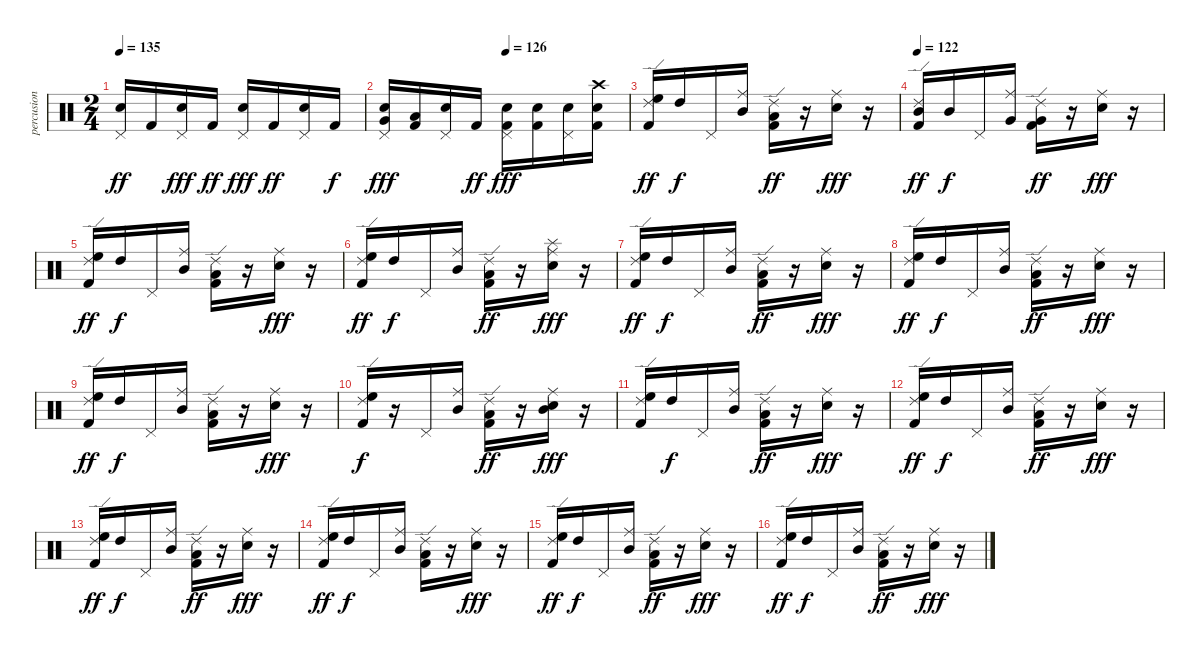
\track ("percusion" "percusion") {instrument percussion}
\staff {score}
\articulation defaults
\ts (2 4)
\tempo 135
\clef neutral
\ks c
("Electric Snare (hit)" "Pedal Hi-Hat (hit)").16{dy ff} "Kick (hit) 2".16 ("Electric Snare (hit)" "Pedal Hi-Hat (hit)").16{dy fff} "Kick (hit) 2".16{dy ff} ("Electric Snare (hit)" "Pedal Hi-Hat (hit)").16{dy fff} "Kick (hit) 2".16{dy ff} ("Electric Snare (hit)" "Pedal Hi-Hat (hit)").16 "Kick (hit) 2".16{dy f} |
\tempo (126 0.5)
("Electric Snare (hit)" "Very Low Tom (hit)" "Pedal Hi-Hat (hit)").16{dy fff} ("Kick (hit) 2" "Low Floor Tom (hit)").16 ("Electric Snare (hit)" "Pedal Hi-Hat (hit)").16 "Kick (hit) 2".16{dy ff} ("Kick (hit) 2" "Electric Snare (hit)" "Pedal Hi-Hat (hit)").16{dy fff} ("Kick (hit) 2" "Electric Snare (hit)").16 ("Electric Snare (hit)" "Pedal Hi-Hat (hit)").16 ("Kick (hit) 2" "Electric Snare (hit)" "Crash high (hit)").16 |
("Kick (hit) 2" "High Floor Tom (hit)" "Ride (edge) 2").16{dy ff} "High Tom (hit)".16{dy f} "Pedal Hi-Hat (hit)".16 ("Mid Tom (hit)" "Ride (middle)").16 ("Kick (hit) 2" "Ride (edge) 2" "Low Tom (hit)").16{dy ff} r.16 ("Electric Snare (hit)" "Ride (middle)").16{dy fff} r.16 |
\tempo 122
("Kick (hit) 2" "Mid Tom (hit)" "Ride (edge) 2").16{dy ff} "Mid Tom (hit)".16{dy f} "Pedal Hi-Hat (hit)".16 ("Very Low Tom (hit)" "Ride (middle)").16 ("Kick (hit) 2" "Very Low Tom (hit)" "Ride (edge) 2").16{dy ff} r.16 ("Electric Snare (hit)" "Ride (middle)").16{dy fff} r.16 |
("Kick (hit) 2" "High Floor Tom (hit)" "Ride (edge) 2").16{dy ff} "High Tom (hit)".16{dy f} "Pedal Hi-Hat (hit)".16 ("Mid Tom (hit)" "Ride (middle)").16 ("Kick (hit) 2" "Ride (edge) 2" "Low Tom (hit)").16 r.16 ("Electric Snare (hit)" "Ride (middle)").16{dy fff} r.16 |
("Kick (hit) 2" "High Floor Tom (hit)" "Ride (edge) 2").16{dy ff} "High Tom (hit)".16{dy f} "Pedal Hi-Hat (hit)".16 ("Mid Tom (hit)" "Ride (middle)").16 ("Kick (hit) 2" "Ride (edge) 2" "Low Tom (hit)").16{dy ff} r.16 ("Electric Snare (hit)" "Ride (middle)" "Splash (hit)").16{dy fff} r.16 |
("Kick (hit) 2" "High Floor Tom (hit)" "Ride (edge) 2").16{dy ff} "High Tom (hit)".16{dy f} "Pedal Hi-Hat (hit)".16 ("Mid Tom (hit)" "Ride (middle)").16 ("Kick (hit) 2" "Ride (edge) 2" "Low Tom (hit)").16{dy ff} r.16 ("Electric Snare (hit)" "Ride (middle)").16{dy fff} r.16 |
("Kick (hit) 2" "High Floor Tom (hit)" "Ride (edge) 2").16{dy ff} "High Tom (hit)".16{dy f} "Pedal Hi-Hat (hit)".16 ("Mid Tom (hit)" "Ride (middle)").16 ("Kick (hit) 2" "Ride (edge) 2" "Low Tom (hit)").16{dy ff} r.16 ("Electric Snare (hit)" "Ride (middle)").16{dy fff} r.16 |
("Kick (hit) 2" "High Floor Tom (hit)" "Ride (edge) 2").16{dy ff} "High Tom (hit)".16{dy f} "Pedal Hi-Hat (hit)".16 ("Mid Tom (hit)" "Ride (middle)").16 ("Kick (hit) 2" "Ride (edge) 2" "Low Tom (hit)").16 r.16 ("Electric Snare (hit)" "Ride (middle)").16{dy fff} r.16 |
("Kick (hit) 2" "High Floor Tom (hit)" "Ride (edge) 2").16{dy f} r.16 "Pedal Hi-Hat (hit)".16 ("Mid Tom (hit)" "Ride (middle)").16 ("Kick (hit) 2" "Ride (edge) 2" "Low Tom (hit)").16{dy ff} r.16 ("Electric Snare (hit)" "Mid Tom (hit)" "Ride (middle)").16{dy fff} r.16 |
("Kick (hit) 2" "High Floor Tom (hit)" "Ride (edge) 2").16 "High Tom (hit)".16{dy f} "Pedal Hi-Hat (hit)".16 ("Mid Tom (hit)" "Ride (middle)").16 ("Kick (hit) 2" "Ride (edge) 2" "Low Tom (hit)").16{dy ff} r.16 ("Electric Snare (hit)" "Ride (middle)").16{dy fff} r.16 |
("Kick (hit) 2" "High Floor Tom (hit)" "Ride (edge) 2").16{dy ff} "High Tom (hit)".16{dy f} "Pedal Hi-Hat (hit)".16 ("Mid Tom (hit)" "Ride (middle)").16 ("Kick (hit) 2" "Ride (edge) 2" "Low Tom (hit)").16{dy ff} r.16 ("Electric Snare (hit)" "Ride (middle)").16{dy fff} r.16 |
("Kick (hit) 2" "High Floor Tom (hit)" "Ride (edge) 2").16{dy ff} "High Tom (hit)".16{dy f} "Pedal Hi-Hat (hit)".16 ("Mid Tom (hit)" "Ride (middle)").16 ("Kick (hit) 2" "Ride (edge) 2" "Low Tom (hit)").16{dy ff} r.16 ("Electric Snare (hit)" "Ride (middle)").16{dy fff} r.16 |
("Kick (hit) 2" "High Floor Tom (hit)" "Ride (edge) 2").16{dy ff} "High Tom (hit)".16{dy f} "Pedal Hi-Hat (hit)".16 ("Mid Tom (hit)" "Ride (middle)").16 ("Kick (hit) 2" "Ride (edge) 2" "Low Tom (hit)").16 r.16 ("Electric Snare (hit)" "Ride (middle)").16{dy fff} r.16 |
("Kick (hit) 2" "High Floor Tom (hit)" "Ride (edge) 2").16{dy ff} "High Tom (hit)".16{dy f} "Pedal Hi-Hat (hit)".16 ("Mid Tom (hit)" "Ride (middle)").16 ("Kick (hit) 2" "Ride (edge) 2" "Low Tom (hit)").16{dy ff} r.16 ("Electric Snare (hit)" "Ride (middle)").16{dy fff} r.16 |
("Kick (hit) 2" "High Floor Tom (hit)" "Ride (edge) 2").16{dy ff} "High Tom (hit)".16{dy f} "Pedal Hi-Hat (hit)".16 ("Mid Tom (hit)" "Ride (middle)").16 ("Kick (hit) 2" "Ride (edge) 2" "Low Tom (hit)").16{dy ff} r.16 ("Electric Snare (hit)" "Ride (middle)").16{dy fff} r.16
